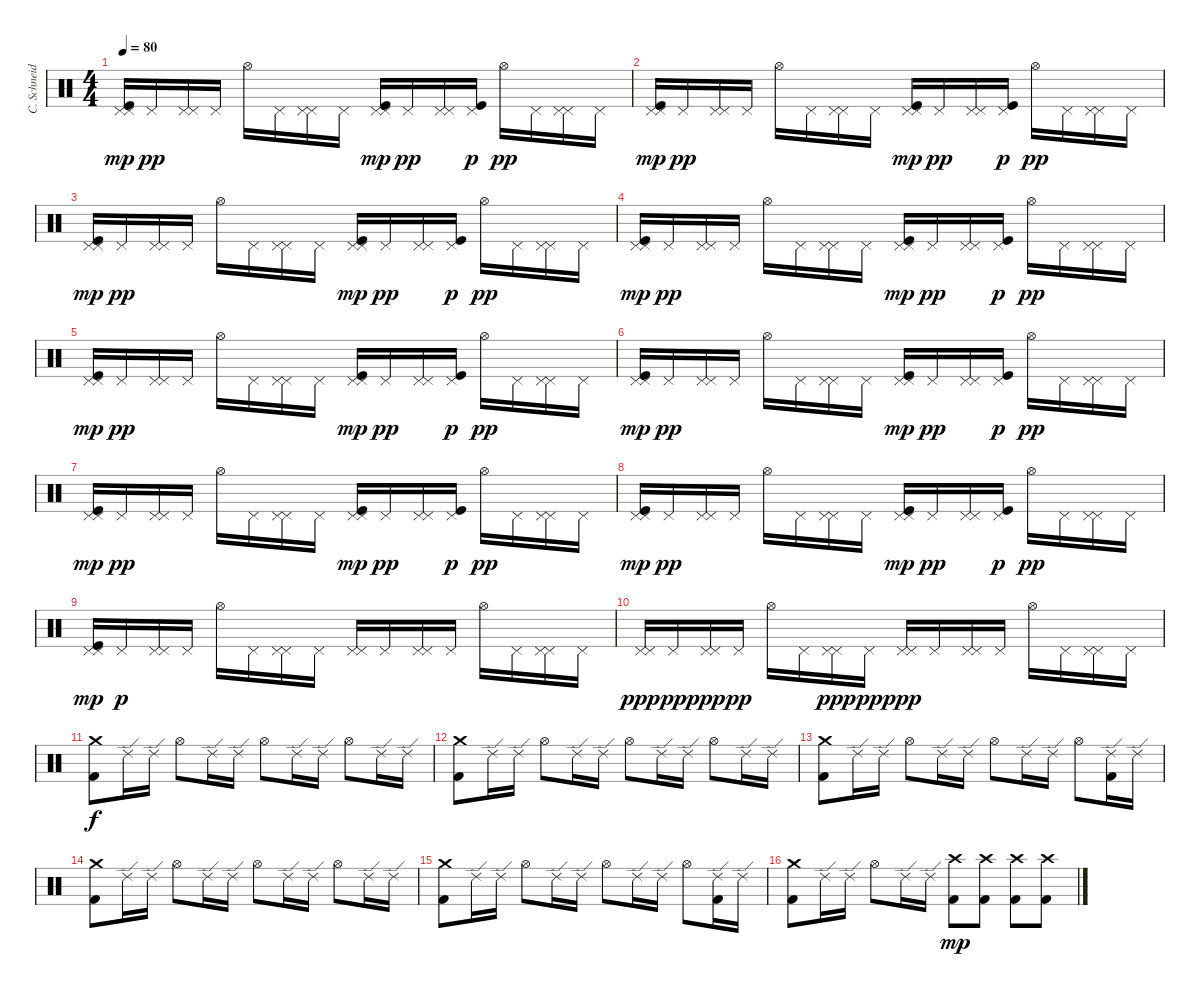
\track ("C. Schneider" "C. Schneid") {instrument percussion}
\staff {score}
\articulation defaults
\ts (4 4)
\tempo 80
\clef neutral
\ks c
("Pedal Hi-Hat (hit)" "Pedal Hi-Hat (hit)" "Kick (hit)").16{dy mp} "Pedal Hi-Hat (hit)".16{dy pp} ("Pedal Hi-Hat (hit)" "Pedal Hi-Hat (hit)").16 "Pedal Hi-Hat (hit)".16 "Hi-Hat (open)".16 "Pedal Hi-Hat (hit)".16 ("Pedal Hi-Hat (hit)" "Pedal Hi-Hat (hit)").16 "Pedal Hi-Hat (hit)".16 ("Pedal Hi-Hat (hit)" "Pedal Hi-Hat (hit)" "Kick (hit)").16{dy mp} "Pedal Hi-Hat (hit)".16{dy pp} ("Pedal Hi-Hat (hit)" "Pedal Hi-Hat (hit)").16 ("Pedal Hi-Hat (hit)" "Kick (hit)").16{dy p} "Hi-Hat (open)".16{dy pp} "Pedal Hi-Hat (hit)".16 ("Pedal Hi-Hat (hit)" "Pedal Hi-Hat (hit)").16 "Pedal Hi-Hat (hit)".16 |
("Pedal Hi-Hat (hit)" "Pedal Hi-Hat (hit)" "Kick (hit)").16{dy mp} "Pedal Hi-Hat (hit)".16{dy pp} ("Pedal Hi-Hat (hit)" "Pedal Hi-Hat (hit)").16 "Pedal Hi-Hat (hit)".16 "Hi-Hat (open)".16 "Pedal Hi-Hat (hit)".16 ("Pedal Hi-Hat (hit)" "Pedal Hi-Hat (hit)").16 "Pedal Hi-Hat (hit)".16 ("Pedal Hi-Hat (hit)" "Pedal Hi-Hat (hit)" "Kick (hit)").16{dy mp} "Pedal Hi-Hat (hit)".16{dy pp} ("Pedal Hi-Hat (hit)" "Pedal Hi-Hat (hit)").16 ("Pedal Hi-Hat (hit)" "Kick (hit)").16{dy p} "Hi-Hat (open)".16{dy pp} "Pedal Hi-Hat (hit)".16 ("Pedal Hi-Hat (hit)" "Pedal Hi-Hat (hit)").16 "Pedal Hi-Hat (hit)".16 |
("Pedal Hi-Hat (hit)" "Pedal Hi-Hat (hit)" "Kick (hit)").16{dy mp} "Pedal Hi-Hat (hit)".16{dy pp} ("Pedal Hi-Hat (hit)" "Pedal Hi-Hat (hit)").16 "Pedal Hi-Hat (hit)".16 "Hi-Hat (open)".16 "Pedal Hi-Hat (hit)".16 ("Pedal Hi-Hat (hit)" "Pedal Hi-Hat (hit)").16 "Pedal Hi-Hat (hit)".16 ("Pedal Hi-Hat (hit)" "Pedal Hi-Hat (hit)" "Kick (hit)").16{dy mp} "Pedal Hi-Hat (hit)".16{dy pp} ("Pedal Hi-Hat (hit)" "Pedal Hi-Hat (hit)").16 ("Pedal Hi-Hat (hit)" "Kick (hit)").16{dy p} "Hi-Hat (open)".16{dy pp} "Pedal Hi-Hat (hit)".16 ("Pedal Hi-Hat (hit)" "Pedal Hi-Hat (hit)").16 "Pedal Hi-Hat (hit)".16 |
("Pedal Hi-Hat (hit)" "Pedal Hi-Hat (hit)" "Kick (hit)").16{dy mp} "Pedal Hi-Hat (hit)".16{dy pp} ("Pedal Hi-Hat (hit)" "Pedal Hi-Hat (hit)").16 "Pedal Hi-Hat (hit)".16 "Hi-Hat (open)".16 "Pedal Hi-Hat (hit)".16 ("Pedal Hi-Hat (hit)" "Pedal Hi-Hat (hit)").16 "Pedal Hi-Hat (hit)".16 ("Pedal Hi-Hat (hit)" "Pedal Hi-Hat (hit)" "Kick (hit)").16{dy mp} "Pedal Hi-Hat (hit)".16{dy pp} ("Pedal Hi-Hat (hit)" "Pedal Hi-Hat (hit)").16 ("Pedal Hi-Hat (hit)" "Kick (hit)").16{dy p} "Hi-Hat (open)".16{dy pp} "Pedal Hi-Hat (hit)".16 ("Pedal Hi-Hat (hit)" "Pedal Hi-Hat (hit)").16 "Pedal Hi-Hat (hit)".16 |
("Pedal Hi-Hat (hit)" "Pedal Hi-Hat (hit)" "Kick (hit)").16{dy mp} "Pedal Hi-Hat (hit)".16{dy pp} ("Pedal Hi-Hat (hit)" "Pedal Hi-Hat (hit)").16 "Pedal Hi-Hat (hit)".16 "Hi-Hat (open)".16 "Pedal Hi-Hat (hit)".16 ("Pedal Hi-Hat (hit)" "Pedal Hi-Hat (hit)").16 "Pedal Hi-Hat (hit)".16 ("Pedal Hi-Hat (hit)" "Pedal Hi-Hat (hit)" "Kick (hit)").16{dy mp} "Pedal Hi-Hat (hit)".16{dy pp} ("Pedal Hi-Hat (hit)" "Pedal Hi-Hat (hit)").16 ("Pedal Hi-Hat (hit)" "Kick (hit)").16{dy p} "Hi-Hat (open)".16{dy pp} "Pedal Hi-Hat (hit)".16 ("Pedal Hi-Hat (hit)" "Pedal Hi-Hat (hit)").16 "Pedal Hi-Hat (hit)".16 |
("Pedal Hi-Hat (hit)" "Pedal Hi-Hat (hit)" "Kick (hit)").16{dy mp} "Pedal Hi-Hat (hit)".16{dy pp} ("Pedal Hi-Hat (hit)" "Pedal Hi-Hat (hit)").16 "Pedal Hi-Hat (hit)".16 "Hi-Hat (open)".16 "Pedal Hi-Hat (hit)".16 ("Pedal Hi-Hat (hit)" "Pedal Hi-Hat (hit)").16 "Pedal Hi-Hat (hit)".16 ("Pedal Hi-Hat (hit)" "Pedal Hi-Hat (hit)" "Kick (hit)").16{dy mp} "Pedal Hi-Hat (hit)".16{dy pp} ("Pedal Hi-Hat (hit)" "Pedal Hi-Hat (hit)").16 ("Pedal Hi-Hat (hit)" "Kick (hit)").16{dy p} "Hi-Hat (open)".16{dy pp} "Pedal Hi-Hat (hit)".16 ("Pedal Hi-Hat (hit)" "Pedal Hi-Hat (hit)").16 "Pedal Hi-Hat (hit)".16 |
("Pedal Hi-Hat (hit)" "Pedal Hi-Hat (hit)" "Kick (hit)").16{dy mp} "Pedal Hi-Hat (hit)".16{dy pp} ("Pedal Hi-Hat (hit)" "Pedal Hi-Hat (hit)").16 "Pedal Hi-Hat (hit)".16 "Hi-Hat (open)".16 "Pedal Hi-Hat (hit)".16 ("Pedal Hi-Hat (hit)" "Pedal Hi-Hat (hit)").16 "Pedal Hi-Hat (hit)".16 ("Pedal Hi-Hat (hit)" "Pedal Hi-Hat (hit)" "Kick (hit)").16{dy mp} "Pedal Hi-Hat (hit)".16{dy pp} ("Pedal Hi-Hat (hit)" "Pedal Hi-Hat (hit)").16 ("Pedal Hi-Hat (hit)" "Kick (hit)").16{dy p} "Hi-Hat (open)".16{dy pp} "Pedal Hi-Hat (hit)".16 ("Pedal Hi-Hat (hit)" "Pedal Hi-Hat (hit)").16 "Pedal Hi-Hat (hit)".16 |
("Pedal Hi-Hat (hit)" "Pedal Hi-Hat (hit)" "Kick (hit)").16{dy mp} "Pedal Hi-Hat (hit)".16{dy pp} ("Pedal Hi-Hat (hit)" "Pedal Hi-Hat (hit)").16 "Pedal Hi-Hat (hit)".16 "Hi-Hat (open)".16 "Pedal Hi-Hat (hit)".16 ("Pedal Hi-Hat (hit)" "Pedal Hi-Hat (hit)").16 "Pedal Hi-Hat (hit)".16 ("Pedal Hi-Hat (hit)" "Pedal Hi-Hat (hit)" "Kick (hit)").16{dy mp} "Pedal Hi-Hat (hit)".16{dy pp} ("Pedal Hi-Hat (hit)" "Pedal Hi-Hat (hit)").16 ("Pedal Hi-Hat (hit)" "Kick (hit)").16{dy p} "Hi-Hat (open)".16{dy pp} "Pedal Hi-Hat (hit)".16 ("Pedal Hi-Hat (hit)" "Pedal Hi-Hat (hit)").16 "Pedal Hi-Hat (hit)".16 |
("Pedal Hi-Hat (hit)" "Pedal Hi-Hat (hit)" "Kick (hit)").16{dy mp} "Pedal Hi-Hat (hit)".16{dy p} ("Pedal Hi-Hat (hit)" "Pedal Hi-Hat (hit)").16 "Pedal Hi-Hat (hit)".16 "Hi-Hat (open)".16 "Pedal Hi-Hat (hit)".16 ("Pedal Hi-Hat (hit)" "Pedal Hi-Hat (hit)").16 "Pedal Hi-Hat (hit)".16 ("Pedal Hi-Hat (hit)" "Pedal Hi-Hat (hit)").16 "Pedal Hi-Hat (hit)".16 ("Pedal Hi-Hat (hit)" "Pedal Hi-Hat (hit)").16 "Pedal Hi-Hat (hit)".16 "Hi-Hat (open)".16 "Pedal Hi-Hat (hit)".16 ("Pedal Hi-Hat (hit)" "Pedal Hi-Hat (hit)").16 "Pedal Hi-Hat (hit)".16 |
("Pedal Hi-Hat (hit)" "Pedal Hi-Hat (hit)").16{dy ppp} "Pedal Hi-Hat (hit)".16{dy pp} ("Pedal Hi-Hat (hit)" "Pedal Hi-Hat (hit)").16{dy ppp} "Pedal Hi-Hat (hit)".16{dy pp} "Hi-Hat (open)".16 "Pedal Hi-Hat (hit)".16 ("Pedal Hi-Hat (hit)" "Pedal Hi-Hat (hit)").16{dy ppp} "Pedal Hi-Hat (hit)".16{dy pp} ("Pedal Hi-Hat (hit)" "Pedal Hi-Hat (hit)").16{dy ppp} "Pedal Hi-Hat (hit)".16 ("Pedal Hi-Hat (hit)" "Pedal Hi-Hat (hit)").16 "Pedal Hi-Hat (hit)".16 "Hi-Hat (open)".16 "Pedal Hi-Hat (hit)".16 ("Pedal Hi-Hat (hit)" "Pedal Hi-Hat (hit)").16 "Pedal Hi-Hat (hit)".16 |
("Crash medium (hit)" "Kick (hit) 2").8{dy f} "Ride (edge) 2".16 "Ride (edge) 2".16 "Hi-Hat (open)".8 "Ride (edge) 2".16 "Ride (edge) 2".16 "Hi-Hat (open)".8 "Ride (edge) 2".16 "Ride (edge) 2".16 "Hi-Hat (open)".8 "Ride (edge) 2".16 "Ride (edge) 2".16 |
("Crash medium (hit)" "Kick (hit) 2").8 "Ride (edge) 2".16 "Ride (edge) 2".16 "Hi-Hat (open)".8 "Ride (edge) 2".16 "Ride (edge) 2".16 "Hi-Hat (open)".8 "Ride (edge) 2".16 "Ride (edge) 2".16 "Hi-Hat (open)".8 "Ride (edge) 2".16 "Ride (edge) 2".16 |
("Crash medium (hit)" "Kick (hit) 2").8 "Ride (edge) 2".16 "Ride (edge) 2".16 "Hi-Hat (open)".8 "Ride (edge) 2".16 "Ride (edge) 2".16 "Hi-Hat (open)".8 "Ride (edge) 2".16 "Ride (edge) 2".16 "Hi-Hat (open)".8 ("Ride (edge) 2" "Kick (hit) 2").16 "Ride (edge) 2".16 |
("Crash medium (hit)" "Kick (hit) 2").8 "Ride (edge) 2".16 "Ride (edge) 2".16 "Hi-Hat (open)".8 "Ride (edge) 2".16 "Ride (edge) 2".16 "Hi-Hat (open)".8 "Ride (edge) 2".16 "Ride (edge) 2".16 "Hi-Hat (open)".8 "Ride (edge) 2".16 "Ride (edge) 2".16 |
("Crash medium (hit)" "Kick (hit) 2").8 "Ride (edge) 2".16 "Ride (edge) 2".16 "Hi-Hat (open)".8 "Ride (edge) 2".16 "Ride (edge) 2".16 "Hi-Hat (open)".8 "Ride (edge) 2".16 "Ride (edge) 2".16 "Hi-Hat (open)".8 ("Ride (edge) 2" "Kick (hit) 2").16 "Ride (edge) 2".16 |
("Crash medium (hit)" "Kick (hit) 2").8 "Ride (edge) 2".16 "Ride (edge) 2".16 "Hi-Hat (open)".8 "Ride (edge) 2".16 "Ride (edge) 2".16 ("Crash high (hit)" "Kick (hit) 2").8{dy mp} ("Crash high (hit)" "Kick (hit) 2").8 ("Crash high (hit)" "Kick (hit) 2").8 ("Crash high (hit)" "Kick (hit) 2").8
